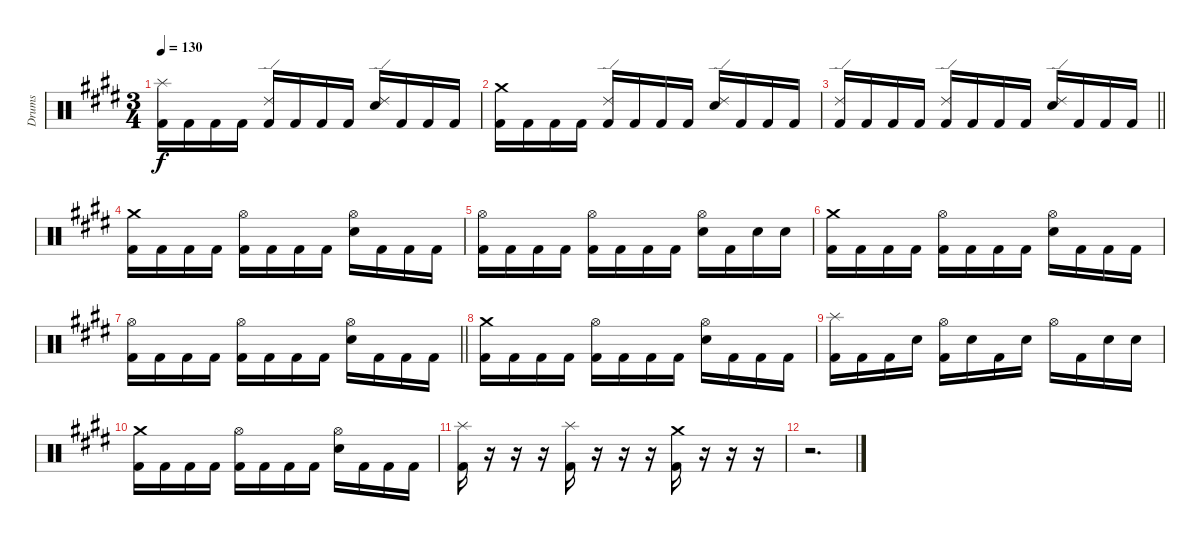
\track ("Drums" "Drums") {instrument percussion}
\staff {score}
\articulation defaults
\ts (3 4)
\tempo 130
\clef neutral
\ks e
("Kick (hit) 2" "Splash (hit)").16{dy f} "Kick (hit) 2".16 "Kick (hit) 2".16 "Kick (hit) 2".16 ("Kick (hit) 2" "Ride (edge) 2").16 "Kick (hit) 2".16 "Kick (hit) 2".16 "Kick (hit) 2".16 ("Electric Snare (hit)" "Ride (edge) 2").16 "Kick (hit) 2".16 "Kick (hit) 2".16 "Kick (hit) 2".16 |
("Kick (hit) 2" "Crash medium (hit)").16 "Kick (hit) 2".16 "Kick (hit) 2".16 "Kick (hit) 2".16 ("Kick (hit) 2" "Ride (edge) 2").16 "Kick (hit) 2".16 "Kick (hit) 2".16 "Kick (hit) 2".16 ("Electric Snare (hit)" "Ride (edge) 2").16 "Kick (hit) 2".16 "Kick (hit) 2".16 "Kick (hit) 2".16 |
\barLineRight lightlight
("Kick (hit) 2" "Ride (edge) 2").16 "Kick (hit) 2".16 "Kick (hit) 2".16 "Kick (hit) 2".16 ("Kick (hit) 2" "Ride (edge) 2").16 "Kick (hit) 2".16 "Kick (hit) 2".16 "Kick (hit) 2".16 ("Electric Snare (hit)" "Ride (edge) 2").16 "Kick (hit) 2".16 "Kick (hit) 2".16 "Kick (hit) 2".16 |
("Kick (hit) 2" "Crash medium (hit)").16 "Kick (hit) 2".16 "Kick (hit) 2".16 "Kick (hit) 2".16 ("Kick (hit) 2" "Hi-Hat (open)").16 "Kick (hit) 2".16 "Kick (hit) 2".16 "Kick (hit) 2".16 ("Electric Snare (hit)" "Hi-Hat (open)").16 "Kick (hit) 2".16 "Kick (hit) 2".16 "Kick (hit) 2".16 |
("Kick (hit) 2" "Hi-Hat (open)").16 "Kick (hit) 2".16 "Kick (hit) 2".16 "Kick (hit) 2".16 ("Kick (hit) 2" "Hi-Hat (open)").16 "Kick (hit) 2".16 "Kick (hit) 2".16 "Kick (hit) 2".16 ("Electric Snare (hit)" "Hi-Hat (open)").16 "Kick (hit) 2".16 "Electric Snare (hit)".16 "Electric Snare (hit)".16 |
("Kick (hit) 2" "Crash medium (hit)").16 "Kick (hit) 2".16 "Kick (hit) 2".16 "Kick (hit) 2".16 ("Kick (hit) 2" "Hi-Hat (open)").16 "Kick (hit) 2".16 "Kick (hit) 2".16 "Kick (hit) 2".16 ("Electric Snare (hit)" "Hi-Hat (open)").16 "Kick (hit) 2".16 "Kick (hit) 2".16 "Kick (hit) 2".16 |
\barLineRight lightlight
("Kick (hit) 2" "Hi-Hat (open)").16 "Kick (hit) 2".16 "Kick (hit) 2".16 "Kick (hit) 2".16 ("Kick (hit) 2" "Hi-Hat (open)").16 "Kick (hit) 2".16 "Kick (hit) 2".16 "Kick (hit) 2".16 ("Electric Snare (hit)" "Hi-Hat (open)").16 "Kick (hit) 2".16 "Kick (hit) 2".16 "Kick (hit) 2".16 |
("Kick (hit) 2" "Crash medium (hit)").16 "Kick (hit) 2".16 "Kick (hit) 2".16 "Kick (hit) 2".16 ("Kick (hit) 2" "Hi-Hat (open)").16 "Kick (hit) 2".16 "Kick (hit) 2".16 "Kick (hit) 2".16 ("Electric Snare (hit)" "Hi-Hat (open)").16 "Kick (hit) 2".16 "Kick (hit) 2".16 "Kick (hit) 2".16 |
("Kick (hit) 2" "Splash (hit)").16 "Kick (hit) 2".16 "Kick (hit) 2".16 "Electric Snare (hit)".16 ("Kick (hit) 2" "Hi-Hat (open)").16 "Electric Snare (hit)".16 "Kick (hit) 2".16 "Electric Snare (hit)".16 "Hi-Hat (open)".16 "Kick (hit) 2".16 "Electric Snare (hit)".16 "Electric Snare (hit)".16 |
("Kick (hit) 2" "Crash medium (hit)").16 "Kick (hit) 2".16 "Kick (hit) 2".16 "Kick (hit) 2".16 ("Kick (hit) 2" "Hi-Hat (open)").16 "Kick (hit) 2".16 "Kick (hit) 2".16 "Kick (hit) 2".16 ("Electric Snare (hit)" "Hi-Hat (open)").16 "Kick (hit) 2".16 "Kick (hit) 2".16 "Kick (hit) 2".16 |
("Kick (hit) 2" "Splash (hit)").16 r.16 r.16 r.16 ("Kick (hit) 2" "Splash (hit)").16 r.16 r.16 r.16 ("Kick (hit) 2" "Crash medium (hit)").16 r.16 r.16 r.16 |
r.2{d}
